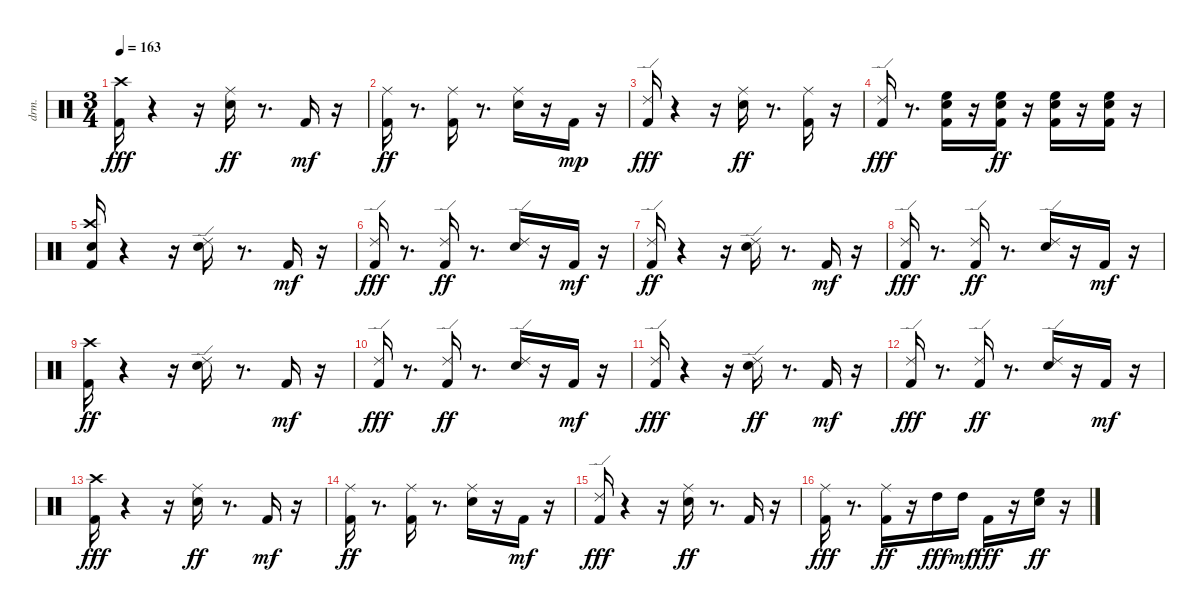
\bracketExtendMode nobrackets
\track ("EZdrummer 3" "drm.") {instrument percussion}
\staff {score}
\articulation defaults
\ts (3 4)
\tempo 163
\clef neutral
\ks aminor
("Kick (hit) 2" "Crash high (hit)"{acc #}).16{dy fff} r.4 r.16 ("Snare (hit) 2" "Ride (middle)"{acc #}).16{dy ff} r.8{d} "Kick (hit) 2".16{dy mf} r.16 |
("Kick (hit) 2" "Ride (middle)"{acc #}).16{dy ff} r.8{d} ("Kick (hit) 2" "Ride (middle)"{acc #}).16 r.8{d} ("Snare (hit) 2" "Ride (middle)"{acc #}).16 r.16 "Kick (hit) 2".16{dy mp} r.16 |
("Kick (hit) 2" "Ride (edge) 2").16{dy fff} r.4 r.16 ("Snare (hit) 2" "Ride (middle)"{acc #}).16{dy ff} r.8{d} ("Kick (hit) 2" "Ride (middle)"{acc #}).16 r.16 |
("Kick (hit) 2" "Ride (edge) 2").16{dy fff} r.8{d} ("Kick (hit) 2" "Snare (hit) 2" "High Floor Tom (hit)").16 r.16 ("Kick (hit) 2" "Snare (hit) 2" "High Floor Tom (hit)").16{dy ff} r.16 ("Kick (hit) 2" "Snare (hit) 2" "High Floor Tom (hit)").16 r.16 ("Kick (hit) 2" "Snare (hit) 2" "High Floor Tom (hit)").16 r.16 |
("Kick (hit) 2" "Snare (hit) 2" "Crash high (hit)"{acc #}).16 r.4 r.16 ("Snare (hit) 2" "Ride (edge) 2").16 r.8{d} "Kick (hit) 2".16{dy mf} r.16 |
("Kick (hit) 2" "Ride (edge) 2").16{dy fff} r.8{d} ("Kick (hit) 2" "Ride (edge) 2").16{dy ff} r.8{d} ("Snare (hit) 2" "Ride (edge) 2").16 r.16 "Kick (hit) 2".16{dy mf} r.16 |
("Kick (hit) 2" "Ride (edge) 2").16{dy ff} r.4 r.16 ("Snare (hit) 2" "Ride (edge) 2").16 r.8{d} "Kick (hit) 2".16{dy mf} r.16 |
("Kick (hit) 2" "Ride (edge) 2").16{dy fff} r.8{d} ("Kick (hit) 2" "Ride (edge) 2").16{dy ff} r.8{d} ("Snare (hit) 2" "Ride (edge) 2").16 r.16 "Kick (hit) 2".16{dy mf} r.16 |
("Kick (hit) 2" "Crash high (hit)"{acc #}).16{dy ff} r.4 r.16 ("Snare (hit) 2" "Ride (edge) 2").16 r.8{d} "Kick (hit) 2".16{dy mf} r.16 |
("Kick (hit) 2" "Ride (edge) 2").16{dy fff} r.8{d} ("Kick (hit) 2" "Ride (edge) 2").16{dy ff} r.8{d} ("Snare (hit) 2" "Ride (edge) 2").16 r.16 "Kick (hit) 2".16{dy mf} r.16 |
("Kick (hit) 2" "Ride (edge) 2").16{dy fff} r.4 r.16 ("Snare (hit) 2" "Ride (edge) 2").16{dy ff} r.8{d} "Kick (hit) 2".16{dy mf} r.16 |
("Kick (hit) 2" "Ride (edge) 2").16{dy fff} r.8{d} ("Kick (hit) 2" "Ride (edge) 2").16{dy ff} r.8{d} ("Snare (hit) 2" "Ride (edge) 2").16 r.16 "Kick (hit) 2".16{dy mf} r.16 |
("Kick (hit) 2" "Crash high (hit)"{acc #}).16{dy fff} r.4 r.16 ("Snare (hit) 2" "Ride (middle)"{acc #}).16{dy ff} r.8{d} "Kick (hit) 2".16{dy mf} r.16 |
("Kick (hit) 2" "Ride (middle)"{acc #}).16{dy ff} r.8{d} ("Kick (hit) 2" "Ride (middle)"{acc #}).16 r.8{d} ("Snare (hit) 2" "Ride (middle)"{acc #}).16 r.16 "Kick (hit) 2".16{dy mf} r.16 |
("Kick (hit) 2" "Ride (edge) 2").16{dy fff} r.4 r.16 ("Snare (hit) 2" "Ride (middle)"{acc #}).16{dy ff} r.8{d} "Kick (hit) 2".16 r.16 |
("Kick (hit) 2" "Ride (middle)"{acc #}).16{dy fff} r.8{d} ("Kick (hit) 2" "Ride (middle)"{acc #}).16{dy ff} r.16 "High Tom (hit)".16{dy fff} "High Tom (hit)".16{dy mf} "Kick (hit) 2".16{dy fff} r.16 ("Snare (hit) 2" "High Floor Tom (hit)").16{dy ff} r.16
